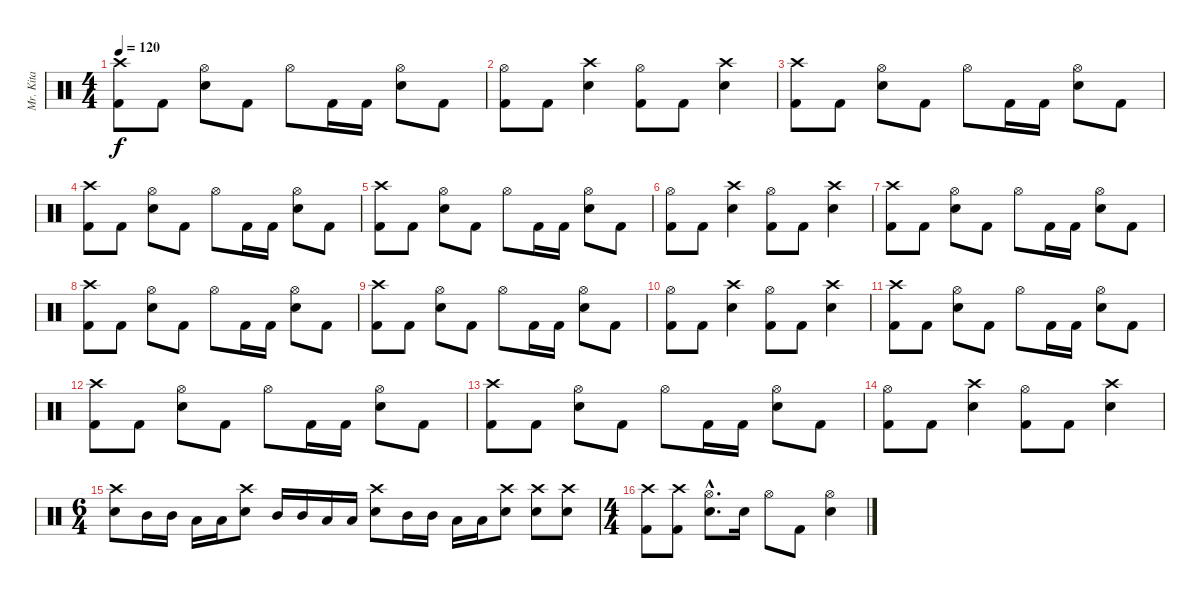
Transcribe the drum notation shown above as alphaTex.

\track ("Mr. Kita" "Mr. Kita") {instrument percussion}
\staff {score}
\articulation defaults
\ts (4 4)
\tempo 120
\clef neutral
\ks c
("Crash high (hit)" "Kick (hit) 2").8{dy f} "Kick (hit) 2".8 ("Hi-Hat (open)" "Snare (hit) 2").8 "Kick (hit) 2".8 "Hi-Hat (open)".8 "Kick (hit) 2".16 "Kick (hit) 2".16 ("Hi-Hat (open)" "Snare (hit) 2").8 "Kick (hit) 2".8 |
("Hi-Hat (open)" "Kick (hit) 2").8 "Kick (hit) 2".8 ("Crash high (hit)" "Snare (hit) 2").4 ("Hi-Hat (open)" "Kick (hit) 2").8 "Kick (hit) 2".8 ("Crash high (hit)" "Snare (hit) 2").4 |
("Crash high (hit)" "Kick (hit) 2").8 "Kick (hit) 2".8 ("Hi-Hat (open)" "Snare (hit) 2").8 "Kick (hit) 2".8 "Hi-Hat (open)".8 "Kick (hit) 2".16 "Kick (hit) 2".16 ("Hi-Hat (open)" "Snare (hit) 2").8 "Kick (hit) 2".8 |
("Crash high (hit)" "Kick (hit) 2").8 "Kick (hit) 2".8 ("Hi-Hat (open)" "Snare (hit) 2").8 "Kick (hit) 2".8 "Hi-Hat (open)".8 "Kick (hit) 2".16 "Kick (hit) 2".16 ("Hi-Hat (open)" "Snare (hit) 2").8 "Kick (hit) 2".8 |
("Crash high (hit)" "Kick (hit) 2").8 "Kick (hit) 2".8 ("Hi-Hat (open)" "Snare (hit) 2").8 "Kick (hit) 2".8 "Hi-Hat (open)".8 "Kick (hit) 2".16 "Kick (hit) 2".16 ("Hi-Hat (open)" "Snare (hit) 2").8 "Kick (hit) 2".8 |
("Hi-Hat (open)" "Kick (hit) 2").8 "Kick (hit) 2".8 ("Crash high (hit)" "Snare (hit) 2").4 ("Hi-Hat (open)" "Kick (hit) 2").8 "Kick (hit) 2".8 ("Crash high (hit)" "Snare (hit) 2").4 |
("Crash high (hit)" "Kick (hit) 2").8 "Kick (hit) 2".8 ("Hi-Hat (open)" "Snare (hit) 2").8 "Kick (hit) 2".8 "Hi-Hat (open)".8 "Kick (hit) 2".16 "Kick (hit) 2".16 ("Hi-Hat (open)" "Snare (hit) 2").8 "Kick (hit) 2".8 |
("Crash high (hit)" "Kick (hit) 2").8 "Kick (hit) 2".8 ("Hi-Hat (open)" "Snare (hit) 2").8 "Kick (hit) 2".8 "Hi-Hat (open)".8 "Kick (hit) 2".16 "Kick (hit) 2".16 ("Hi-Hat (open)" "Snare (hit) 2").8 "Kick (hit) 2".8 |
("Crash high (hit)" "Kick (hit) 2").8 "Kick (hit) 2".8 ("Hi-Hat (open)" "Snare (hit) 2").8 "Kick (hit) 2".8 "Hi-Hat (open)".8 "Kick (hit) 2".16 "Kick (hit) 2".16 ("Hi-Hat (open)" "Snare (hit) 2").8 "Kick (hit) 2".8 |
("Hi-Hat (open)" "Kick (hit) 2").8 "Kick (hit) 2".8 ("Crash high (hit)" "Snare (hit) 2").4 ("Hi-Hat (open)" "Kick (hit) 2").8 "Kick (hit) 2".8 ("Crash high (hit)" "Snare (hit) 2").4 |
("Crash high (hit)" "Kick (hit) 2").8 "Kick (hit) 2".8 ("Hi-Hat (open)" "Snare (hit) 2").8 "Kick (hit) 2".8 "Hi-Hat (open)".8 "Kick (hit) 2".16 "Kick (hit) 2".16 ("Hi-Hat (open)" "Snare (hit) 2").8 "Kick (hit) 2".8 |
("Crash high (hit)" "Kick (hit) 2").8 "Kick (hit) 2".8 ("Hi-Hat (open)" "Snare (hit) 2").8 "Kick (hit) 2".8 "Hi-Hat (open)".8 "Kick (hit) 2".16 "Kick (hit) 2".16 ("Hi-Hat (open)" "Snare (hit) 2").8 "Kick (hit) 2".8 |
("Crash high (hit)" "Kick (hit) 2").8 "Kick (hit) 2".8 ("Hi-Hat (open)" "Snare (hit) 2").8 "Kick (hit) 2".8 "Hi-Hat (open)".8 "Kick (hit) 2".16 "Kick (hit) 2".16 ("Hi-Hat (open)" "Snare (hit) 2").8 "Kick (hit) 2".8 |
("Hi-Hat (open)" "Kick (hit) 2").8 "Kick (hit) 2".8 ("Crash high (hit)" "Snare (hit) 2").4 ("Hi-Hat (open)" "Kick (hit) 2").8 "Kick (hit) 2".8 ("Crash high (hit)" "Snare (hit) 2").4 |
\ts (6 4)
("Crash high (hit)" "Snare (hit) 2").8 "Mid Tom (hit)".16 "Mid Tom (hit)".16 "Low Tom (hit)".16 "Low Tom (hit)".16 ("Crash high (hit)" "Snare (hit) 2").8 "Mid Tom (hit)".16 "Mid Tom (hit)".16 "Low Tom (hit)".16 "Low Tom (hit)".16 ("Crash high (hit)" "Snare (hit) 2").8 "Mid Tom (hit)".16 "Mid Tom (hit)".16 "Low Tom (hit)".16 "Low Tom (hit)".16 ("Crash high (hit)" "Snare (hit) 2").8 ("Crash high (hit)" "Snare (hit) 2").8 ("Crash high (hit)" "Snare (hit) 2").8 |
\ts (4 4)
("Crash high (hit)" "Kick (hit) 2").8 ("Crash high (hit)" "Kick (hit) 2").8 ("Hi-Hat (open)"{hac} "Snare (hit) 2"{hac}).8{d} "Snare (hit) 2".16 "Hi-Hat (open)".8 "Kick (hit) 2".8 ("Hi-Hat (open)" "Snare (hit) 2").4
